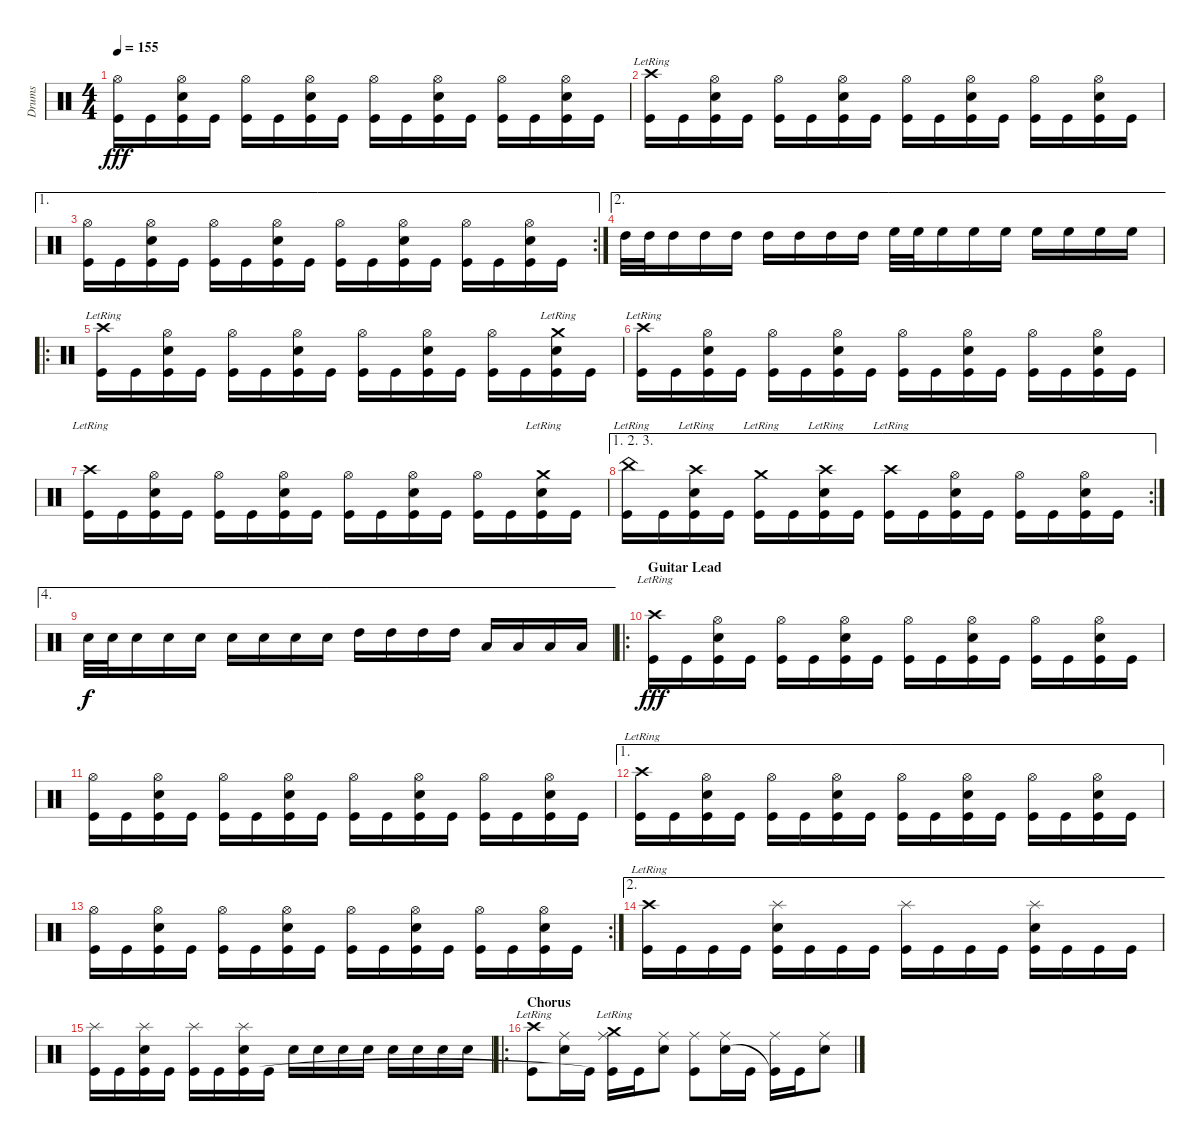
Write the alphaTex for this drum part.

\track ("Drums" "Drums") {instrument percussion}
\staff {score}
\articulation defaults
\ts (4 4)
\tempo 155
\clef neutral
\ks c
("Hi-Hat (open)" "Kick (hit)").16{dy fff} "Kick (hit)".16 ("Hi-Hat (open)" "Snare (hit) 2" "Kick (hit)").16 "Kick (hit)".16 ("Hi-Hat (open)" "Kick (hit)").16 "Kick (hit)".16 ("Hi-Hat (open)" "Snare (hit) 2" "Kick (hit)").16 "Kick (hit)".16 ("Hi-Hat (open)" "Kick (hit)").16 "Kick (hit)".16 ("Hi-Hat (open)" "Snare (hit) 2" "Kick (hit)").16 "Kick (hit)".16 ("Hi-Hat (open)" "Kick (hit)").16 "Kick (hit)".16 ("Hi-Hat (open)" "Snare (hit) 2" "Kick (hit)").16 "Kick (hit)".16 |
("Crash high (hit)"{lr} "Kick (hit)").16 "Kick (hit)".16 ("Hi-Hat (open)" "Snare (hit) 2" "Kick (hit)").16 "Kick (hit)".16 ("Hi-Hat (open)" "Kick (hit)").16 "Kick (hit)".16 ("Hi-Hat (open)" "Snare (hit) 2" "Kick (hit)").16 "Kick (hit)".16 ("Hi-Hat (open)" "Kick (hit)").16 "Kick (hit)".16 ("Hi-Hat (open)" "Snare (hit) 2" "Kick (hit)").16 "Kick (hit)".16 ("Hi-Hat (open)" "Kick (hit)").16 "Kick (hit)".16 ("Hi-Hat (open)" "Snare (hit) 2" "Kick (hit)").16 "Kick (hit)".16 |
\ae 1
\rc 2
("Hi-Hat (open)" "Kick (hit)").16 "Kick (hit)".16 ("Hi-Hat (open)" "Snare (hit) 2" "Kick (hit)").16 "Kick (hit)".16 ("Hi-Hat (open)" "Kick (hit)").16 "Kick (hit)".16 ("Hi-Hat (open)" "Snare (hit) 2" "Kick (hit)").16 "Kick (hit)".16 ("Hi-Hat (open)" "Kick (hit)").16 "Kick (hit)".16 ("Hi-Hat (open)" "Snare (hit) 2" "Kick (hit)").16 "Kick (hit)".16 ("Hi-Hat (open)" "Kick (hit)").16 "Kick (hit)".16 ("Hi-Hat (open)" "Snare (hit) 2" "Kick (hit)").16 "Kick (hit)".16 |
\ae 2 "High Tom (hit)".32{balance 3} "High Tom (hit)".32 "High Tom (hit)".16 "High Tom (hit)".16 "High Tom (hit)".16 "High Tom (hit)".16 "High Tom (hit)".16 "High Tom (hit)".16 "High Tom (hit)".16 "High Floor Tom (hit)".32{balance 13} "High Floor Tom (hit)".32 "High Floor Tom (hit)".16 "High Floor Tom (hit)".16 "High Floor Tom (hit)".16 "High Floor Tom (hit)".16 "High Floor Tom (hit)".16 "High Floor Tom (hit)".16 "High Floor Tom (hit)".16
|
\ro
("Crash high (hit)"{lr} "Kick (hit)").16 "Kick (hit)".16 ("Hi-Hat (open)" "Snare (hit) 2" "Kick (hit)").16 "Kick (hit)".16 ("Hi-Hat (open)" "Kick (hit)").16 "Kick (hit)".16 ("Hi-Hat (open)" "Snare (hit) 2" "Kick (hit)").16 "Kick (hit)".16 ("Hi-Hat (open)" "Kick (hit)").16 "Kick (hit)".16 ("Hi-Hat (open)" "Snare (hit) 2" "Kick (hit)").16 "Kick (hit)".16 ("Hi-Hat (open)" "Kick (hit)").16 "Kick (hit)".16 ("Crash medium (hit)"{lr} "Snare (hit) 2" "Kick (hit)").16 "Kick (hit)".16 |
("Crash high (hit)"{lr} "Kick (hit)").16 "Kick (hit)".16 ("Hi-Hat (open)" "Snare (hit) 2" "Kick (hit)").16 "Kick (hit)".16 ("Hi-Hat (open)" "Kick (hit)").16 "Kick (hit)".16 ("Hi-Hat (open)" "Snare (hit) 2" "Kick (hit)").16 "Kick (hit)".16 ("Hi-Hat (open)" "Kick (hit)").16 "Kick (hit)".16 ("Hi-Hat (open)" "Snare (hit) 2" "Kick (hit)").16 "Kick (hit)".16 ("Hi-Hat (open)" "Kick (hit)").16 "Kick (hit)".16 ("Hi-Hat (open)" "Snare (hit) 2" "Kick (hit)").16 "Kick (hit)".16 |
("Crash high (hit)"{lr} "Kick (hit)").16 "Kick (hit)".16 ("Hi-Hat (open)" "Snare (hit) 2" "Kick (hit)").16 "Kick (hit)".16 ("Hi-Hat (open)" "Kick (hit)").16 "Kick (hit)".16 ("Hi-Hat (open)" "Snare (hit) 2" "Kick (hit)").16 "Kick (hit)".16 ("Hi-Hat (open)" "Kick (hit)").16 "Kick (hit)".16 ("Hi-Hat (open)" "Snare (hit) 2" "Kick (hit)").16 "Kick (hit)".16 ("Hi-Hat (open)" "Kick (hit)").16 "Kick (hit)".16 ("Crash medium (hit)"{lr} "Snare (hit) 2" "Kick (hit)").16 "Kick (hit)".16 |
\ae (1 2 3)
\rc 2
("China (hit)"{lr} "Kick (hit)").16 "Kick (hit)".16 ("Crash high (hit)"{lr} "Snare (hit) 2" "Kick (hit)").16 "Kick (hit)".16 ("Crash medium (hit)"{lr} "Kick (hit)").16 "Kick (hit)".16 ("Crash high (hit)"{lr} "Snare (hit) 2" "Kick (hit)").16 "Kick (hit)".16 ("Crash high (hit)"{lr} "Kick (hit)").16 "Kick (hit)".16 ("Hi-Hat (open)" "Snare (hit) 2" "Kick (hit)").16 "Kick (hit)".16 ("Hi-Hat (open)" "Kick (hit)").16 "Kick (hit)".16 ("Hi-Hat (open)" "Snare (hit) 2" "Kick (hit)").16 "Kick (hit)".16 |
\ae 4 "Snare (hit) 2".32{dy f} "Snare (hit) 2".32 "Snare (hit) 2".16 "Snare (hit) 2".16 "Snare (hit) 2".16 "Snare (hit) 2".16 "Snare (hit) 2".16 "Snare (hit) 2".16 "Snare (hit) 2".16 "High Tom (hit)".16{balance 5} "High Tom (hit)".16 "High Tom (hit)".16 "High Tom (hit)".16 "Low Tom (hit)".16{balance 0} "Low Tom (hit)".16 "Low Tom (hit)".16 "Low Tom (hit)".16
|
\ro
\section ("" "Guitar Lead")
("Crash high (hit)"{lr} "Kick (hit)").16{dy fff balance 8} "Kick (hit)".16 ("Hi-Hat (open)" "Snare (hit) 2" "Kick (hit)").16 "Kick (hit)".16 ("Hi-Hat (open)" "Kick (hit)").16 "Kick (hit)".16 ("Hi-Hat (open)" "Snare (hit) 2" "Kick (hit)").16 "Kick (hit)".16 ("Hi-Hat (open)" "Kick (hit)").16 "Kick (hit)".16 ("Hi-Hat (open)" "Snare (hit) 2" "Kick (hit)").16 "Kick (hit)".16 ("Hi-Hat (open)" "Kick (hit)").16 "Kick (hit)".16 ("Hi-Hat (open)" "Snare (hit) 2" "Kick (hit)").16 "Kick (hit)".16 |
("Hi-Hat (open)" "Kick (hit)").16 "Kick (hit)".16 ("Hi-Hat (open)" "Snare (hit) 2" "Kick (hit)").16 "Kick (hit)".16 ("Hi-Hat (open)" "Kick (hit)").16 "Kick (hit)".16 ("Hi-Hat (open)" "Snare (hit) 2" "Kick (hit)").16 "Kick (hit)".16 ("Hi-Hat (open)" "Kick (hit)").16 "Kick (hit)".16 ("Hi-Hat (open)" "Snare (hit) 2" "Kick (hit)").16 "Kick (hit)".16 ("Hi-Hat (open)" "Kick (hit)").16 "Kick (hit)".16 ("Hi-Hat (open)" "Snare (hit) 2" "Kick (hit)").16 "Kick (hit)".16 |
\ae 1
("Crash high (hit)"{lr} "Kick (hit)").16 "Kick (hit)".16 ("Hi-Hat (open)" "Snare (hit) 2" "Kick (hit)").16 "Kick (hit)".16 ("Hi-Hat (open)" "Kick (hit)").16 "Kick (hit)".16 ("Hi-Hat (open)" "Snare (hit) 2" "Kick (hit)").16 "Kick (hit)".16 ("Hi-Hat (open)" "Kick (hit)").16 "Kick (hit)".16 ("Hi-Hat (open)" "Snare (hit) 2" "Kick (hit)").16 "Kick (hit)".16 ("Hi-Hat (open)" "Kick (hit)").16 "Kick (hit)".16 ("Hi-Hat (open)" "Snare (hit) 2" "Kick (hit)").16 "Kick (hit)".16 |
\rc 2
("Hi-Hat (open)" "Kick (hit)").16 "Kick (hit)".16 ("Hi-Hat (open)" "Snare (hit) 2" "Kick (hit)").16 "Kick (hit)".16 ("Hi-Hat (open)" "Kick (hit)").16 "Kick (hit)".16 ("Hi-Hat (open)" "Snare (hit) 2" "Kick (hit)").16 "Kick (hit)".16 ("Hi-Hat (open)" "Kick (hit)").16 "Kick (hit)".16 ("Hi-Hat (open)" "Snare (hit) 2" "Kick (hit)").16 "Kick (hit)".16 ("Hi-Hat (open)" "Kick (hit)").16 "Kick (hit)".16 ("Hi-Hat (open)" "Snare (hit) 2" "Kick (hit)").16 "Kick (hit)".16 |
\ae 2
("Crash high (hit)"{lr} "Kick (hit)").16 "Kick (hit)".16 "Kick (hit)".16 "Kick (hit)".16 ("Splash (hit)" "Snare (hit) 2" "Kick (hit)").16 "Kick (hit)".16 "Kick (hit)".16 "Kick (hit)".16 ("Splash (hit)" "Kick (hit)").16 "Kick (hit)".16 "Kick (hit)".16 "Kick (hit)".16 ("Splash (hit)" "Snare (hit) 2" "Kick (hit)").16 "Kick (hit)".16 "Kick (hit)".16 "Kick (hit)".16 |
("Splash (hit)" "Kick (hit)").16 "Kick (hit)".16 ("Splash (hit)" "Snare (hit) 2" "Kick (hit)").16 "Kick (hit)".16 ("Splash (hit)" "Kick (hit)").16 "Kick (hit)".16 ("Splash (hit)" "Snare (hit) 2" "Kick (hit)").16 "Kick (hit)".16 "Snare (hit) 2".16 "Snare (hit) 2".16 "Snare (hit) 2".16 "Snare (hit) 2".16 "Snare (hit) 2".16 "Snare (hit) 2".16 "Snare (hit) 2".16 "Snare (hit) 2".16 |
\ro
\section ("" "Chorus")
("Crash high (hit)"{lr} "Kick (hit)").8 ("Ride (middle)" "Snare (hit) 2").16 "Kick (hit)".16 ("Crash medium (hit)"{lr} "Ride (middle)" "Kick (hit)"{t}).16 "Kick (hit)".16 ("Ride (middle)" "Snare (hit) 2").8 ("Ride (middle)" "Kick (hit)").8 ("Ride (middle)" "Snare (hit) 2").16 "Kick (hit)".16 ("Ride (middle)" "Kick (hit)"{t}).16 "Kick (hit)".16 ("Ride (middle)" "Snare (hit) 2").8
